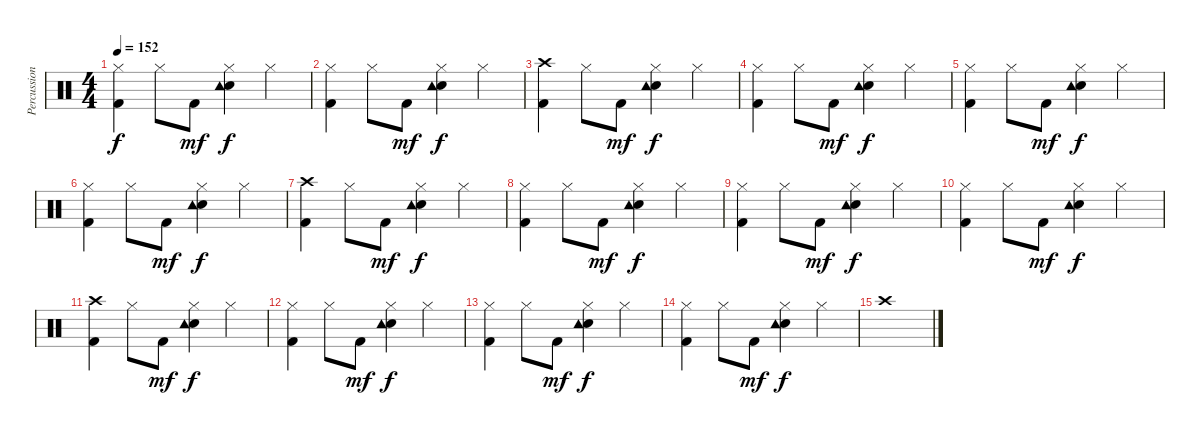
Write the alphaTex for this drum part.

\track ("Percussion" "Percussion") {instrument percussion}
\staff {score}
\articulation defaults
\ts (4 4)
\tempo 152
\clef neutral
\ks c
("Hi-Hat (closed)" "Kick (hit) 2").4{dy f} "Hi-Hat (closed)".8 "Kick (hit) 2".8{dy mf} ("Hi-Hat (closed)" "Snare (hit) 2" "Tambourine (hit)").4{dy f} "Hi-Hat (closed)".4 |
("Hi-Hat (closed)" "Kick (hit) 2").4 "Hi-Hat (closed)".8 "Kick (hit) 2".8{dy mf} ("Hi-Hat (closed)" "Snare (hit) 2" "Tambourine (hit)").4{dy f} "Hi-Hat (closed)".4 |
("Crash high (hit)" "Kick (hit) 2").4 "Hi-Hat (closed)".8 "Kick (hit) 2".8{dy mf} ("Hi-Hat (closed)" "Snare (hit) 2" "Tambourine (hit)").4{dy f} "Hi-Hat (closed)".4 |
("Hi-Hat (closed)" "Kick (hit) 2").4 "Hi-Hat (closed)".8 "Kick (hit) 2".8{dy mf} ("Hi-Hat (closed)" "Snare (hit) 2" "Tambourine (hit)").4{dy f} "Hi-Hat (closed)".4 |
("Hi-Hat (closed)" "Kick (hit) 2").4 "Hi-Hat (closed)".8 "Kick (hit) 2".8{dy mf} ("Hi-Hat (closed)" "Snare (hit) 2" "Tambourine (hit)").4{dy f} "Hi-Hat (closed)".4 |
("Hi-Hat (closed)" "Kick (hit) 2").4 "Hi-Hat (closed)".8 "Kick (hit) 2".8{dy mf} ("Hi-Hat (closed)" "Snare (hit) 2" "Tambourine (hit)").4{dy f} "Hi-Hat (closed)".4 |
("Crash high (hit)" "Kick (hit) 2").4 "Hi-Hat (closed)".8 "Kick (hit) 2".8{dy mf} ("Hi-Hat (closed)" "Snare (hit) 2" "Tambourine (hit)").4{dy f} "Hi-Hat (closed)".4 |
("Hi-Hat (closed)" "Kick (hit) 2").4 "Hi-Hat (closed)".8 "Kick (hit) 2".8{dy mf} ("Hi-Hat (closed)" "Snare (hit) 2" "Tambourine (hit)").4{dy f} "Hi-Hat (closed)".4 |
("Hi-Hat (closed)" "Kick (hit) 2").4 "Hi-Hat (closed)".8 "Kick (hit) 2".8{dy mf} ("Hi-Hat (closed)" "Snare (hit) 2" "Tambourine (hit)").4{dy f} "Hi-Hat (closed)".4 |
("Hi-Hat (closed)" "Kick (hit) 2").4 "Hi-Hat (closed)".8 "Kick (hit) 2".8{dy mf} ("Hi-Hat (closed)" "Snare (hit) 2" "Tambourine (hit)").4{dy f} "Hi-Hat (closed)".4 |
("Crash high (hit)" "Kick (hit) 2").4 "Hi-Hat (closed)".8 "Kick (hit) 2".8{dy mf} ("Hi-Hat (closed)" "Snare (hit) 2" "Tambourine (hit)").4{dy f} "Hi-Hat (closed)".4 |
("Hi-Hat (closed)" "Kick (hit) 2").4 "Hi-Hat (closed)".8 "Kick (hit) 2".8{dy mf} ("Hi-Hat (closed)" "Snare (hit) 2" "Tambourine (hit)").4{dy f} "Hi-Hat (closed)".4 |
("Hi-Hat (closed)" "Kick (hit) 2").4 "Hi-Hat (closed)".8 "Kick (hit) 2".8{dy mf} ("Hi-Hat (closed)" "Snare (hit) 2" "Tambourine (hit)").4{dy f} "Hi-Hat (closed)".4 |
("Hi-Hat (closed)" "Kick (hit) 2").4 "Hi-Hat (closed)".8 "Kick (hit) 2".8{dy mf} ("Hi-Hat (closed)" "Snare (hit) 2" "Tambourine (hit)").4{dy f} "Hi-Hat (closed)".4 |
"Crash high (hit)".1
